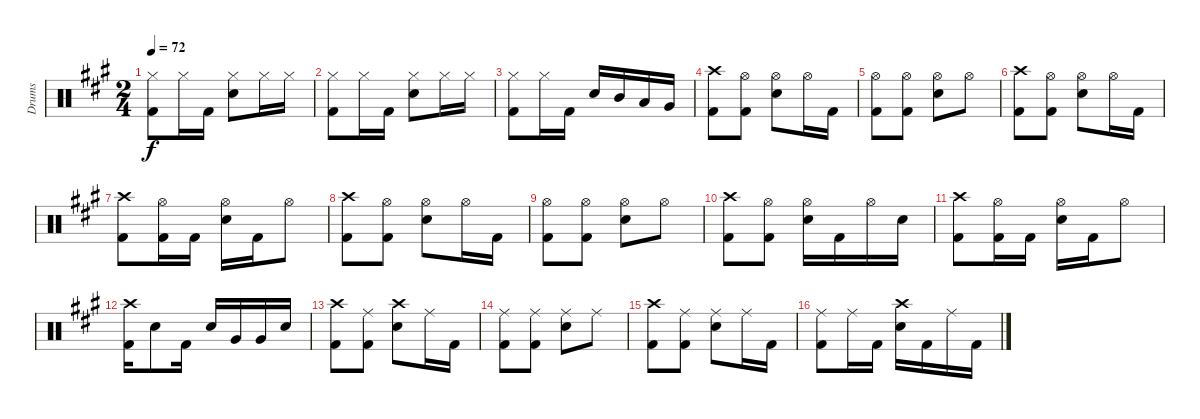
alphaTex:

\track ("Drums" "Drums") {instrument percussion}
\staff {score}
\articulation defaults
\ts (2 4)
\tempo 72
\clef neutral
\ks a
("Hi-Hat (closed)" "Kick (hit) 2").8{dy f} "Hi-Hat (closed)".16 "Kick (hit) 2".16 ("Hi-Hat (closed)" "Snare (hit) 2").8 "Hi-Hat (closed)".16 "Hi-Hat (closed)".16 |
("Hi-Hat (closed)" "Kick (hit) 2").8 "Hi-Hat (closed)".16 "Kick (hit) 2".16 ("Hi-Hat (closed)" "Snare (hit) 2").8 "Hi-Hat (closed)".16 "Hi-Hat (closed)".16 |
("Hi-Hat (closed)" "Kick (hit) 2").8 "Hi-Hat (closed)".16 "Kick (hit) 2".16 "Snare (hit) 2".16 "Mid Tom (hit)".16 "Low Tom (hit)".16 "Very Low Tom (hit)".16 |
("Crash high (hit)" "Kick (hit) 2").8 ("Hi-Hat (open)" "Kick (hit) 2").8 ("Hi-Hat (open)" "Snare (hit) 2").8 "Hi-Hat (open)".16 "Kick (hit) 2".16 |
("Hi-Hat (open)" "Kick (hit) 2").8 ("Hi-Hat (open)" "Kick (hit) 2").8 ("Hi-Hat (open)" "Snare (hit) 2").8 "Hi-Hat (open)".8 |
("Crash high (hit)" "Kick (hit) 2").8 ("Hi-Hat (open)" "Kick (hit) 2").8 ("Hi-Hat (open)" "Snare (hit) 2").8 "Hi-Hat (open)".16 "Kick (hit) 2".16 |
("Crash high (hit)" "Kick (hit) 2").8 ("Hi-Hat (open)" "Kick (hit) 2").16 "Kick (hit) 2".16 ("Hi-Hat (open)" "Snare (hit) 2").16 "Kick (hit) 2".16 "Hi-Hat (open)".8 |
("Crash high (hit)" "Kick (hit) 2").8 ("Hi-Hat (open)" "Kick (hit) 2").8 ("Hi-Hat (open)" "Snare (hit) 2").8 "Hi-Hat (open)".16 "Kick (hit) 2".16 |
("Hi-Hat (open)" "Kick (hit) 2").8 ("Hi-Hat (open)" "Kick (hit) 2").8 ("Hi-Hat (open)" "Snare (hit) 2").8 "Hi-Hat (open)".8 |
("Crash high (hit)" "Kick (hit) 2").8 ("Hi-Hat (open)" "Kick (hit) 2").8 ("Hi-Hat (open)" "Snare (hit) 2").16 "Kick (hit) 2".16 "Hi-Hat (open)".16 "Snare (hit) 2".16 |
("Crash high (hit)" "Kick (hit) 2").8 ("Hi-Hat (open)" "Kick (hit) 2").16 "Kick (hit) 2".16 ("Hi-Hat (open)" "Snare (hit) 2").16 "Kick (hit) 2".16 "Hi-Hat (open)".8 |
("Crash high (hit)" "Kick (hit) 2").16 "Snare (hit) 2".8 "Kick (hit) 2".16 "Snare (hit) 2".16 "Very Low Tom (hit)".16 "Very Low Tom (hit)".16 "Snare (hit) 2".16 |
("Crash high (hit)" "Kick (hit) 2").8 ("Ride (middle)" "Kick (hit) 2").8 ("Crash high (hit)" "Snare (hit) 2").8 "Ride (middle)".16 "Kick (hit) 2".16 |
("Ride (middle)" "Kick (hit) 2").8 ("Ride (middle)" "Kick (hit) 2").8 ("Ride (middle)" "Snare (hit) 2").8 "Ride (middle)".8 |
("Crash high (hit)" "Kick (hit) 2").8 ("Ride (middle)" "Kick (hit) 2").8 ("Ride (middle)" "Snare (hit) 2").8 "Ride (middle)".16 "Kick (hit) 2".16 |
("Ride (middle)" "Kick (hit) 2").8 "Ride (middle)".16 "Kick (hit) 2".16 ("Crash high (hit)" "Snare (hit) 2").16 "Kick (hit) 2".16 "Ride (middle)".16 "Kick (hit) 2".16
